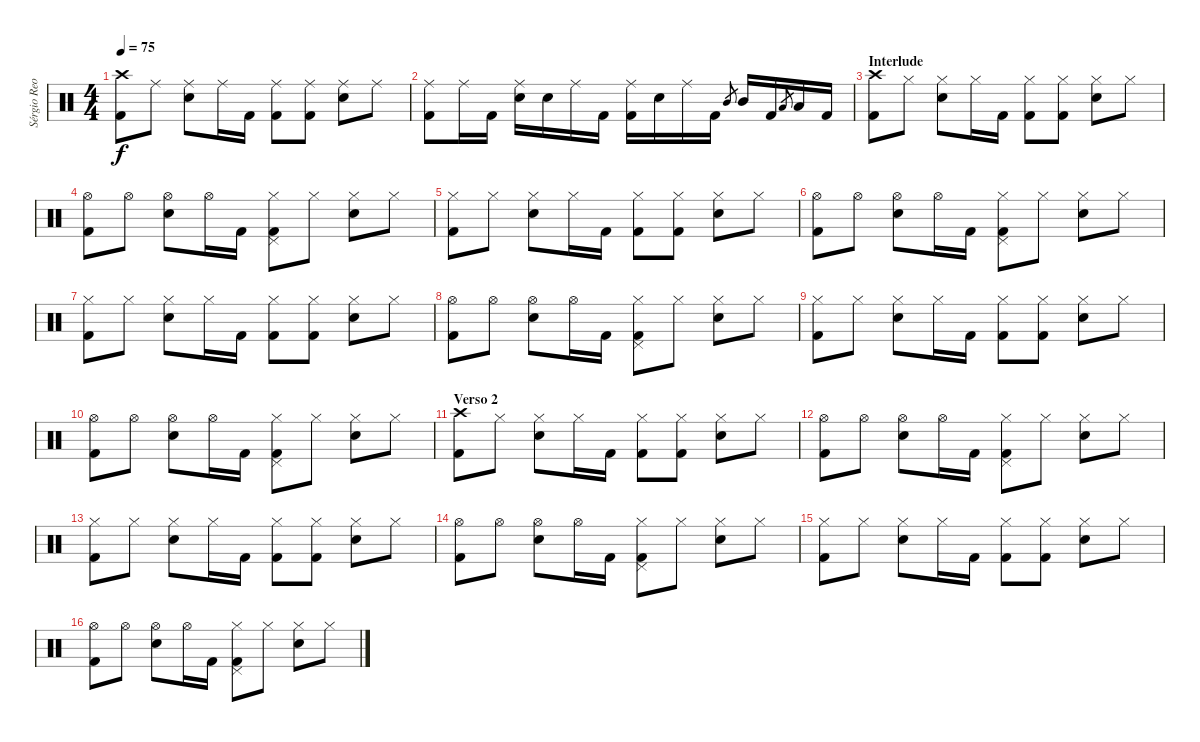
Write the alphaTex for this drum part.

\track ("Sérgio Reoli" "Sérgio Reo") {instrument percussion}
\staff {score}
\articulation defaults
\ts (4 4)
\tempo 75
\clef neutral
\ks c
("Crash high (hit)" "Kick (hit) 2").8{dy f} "Ride (middle)".8 ("Ride (middle)" "Electric Snare (hit)").8 "Ride (middle)".16 "Kick (hit) 2".16 ("Ride (middle)" "Kick (hit) 2").8 ("Ride (middle)" "Kick (hit) 2").8 ("Ride (middle)" "Electric Snare (hit)").8 "Ride (middle)".8 |
("Ride (middle)" "Kick (hit) 2").8 "Ride (middle)".16 "Kick (hit) 2".16 ("Ride (middle)" "Electric Snare (hit)").16 "Electric Snare (hit)".16 "Ride (middle)".16 "Kick (hit) 2".16 ("Ride (middle)" "Kick (hit) 2").16 "Electric Snare (hit)".16 "Ride (middle)".16 "Kick (hit) 2".16 "Mid Tom (hit)".8{gr} "Mid Tom (hit)".16 "Kick (hit) 2".16 "Low Tom (hit)".8{gr} "Low Tom (hit)".16 "Kick (hit) 2".16 |
\section ("" "Interlude")
("Crash high (hit)" "Kick (hit) 2").8 "Hi-Hat (closed)".8 ("Hi-Hat (closed)" "Electric Snare (hit)").8 "Hi-Hat (closed)".16 "Kick (hit) 2".16 ("Hi-Hat (closed)" "Kick (hit) 2").8 ("Hi-Hat (closed)" "Kick (hit) 2").8 ("Hi-Hat (closed)" "Electric Snare (hit)").8 "Hi-Hat (closed)".8 |
("Hi-Hat (open)" "Kick (hit) 2").8 "Hi-Hat (open)".8 ("Hi-Hat (open)" "Electric Snare (hit)").8 "Hi-Hat (open)".16 "Kick (hit) 2".16 ("Hi-Hat (closed)" "Pedal Hi-Hat (hit)" "Kick (hit) 2").8 "Hi-Hat (closed)".8 ("Hi-Hat (closed)" "Electric Snare (hit)").8 "Hi-Hat (closed)".8 |
("Hi-Hat (closed)" "Kick (hit) 2").8 "Hi-Hat (closed)".8 ("Hi-Hat (closed)" "Electric Snare (hit)").8 "Hi-Hat (closed)".16 "Kick (hit) 2".16 ("Hi-Hat (closed)" "Kick (hit) 2").8 ("Hi-Hat (closed)" "Kick (hit) 2").8 ("Hi-Hat (closed)" "Electric Snare (hit)").8 "Hi-Hat (closed)".8 |
("Hi-Hat (open)" "Kick (hit) 2").8 "Hi-Hat (open)".8 ("Hi-Hat (open)" "Electric Snare (hit)").8 "Hi-Hat (open)".16 "Kick (hit) 2".16 ("Hi-Hat (closed)" "Pedal Hi-Hat (hit)" "Kick (hit) 2").8 "Hi-Hat (closed)".8 ("Hi-Hat (closed)" "Electric Snare (hit)").8 "Hi-Hat (closed)".8 |
("Hi-Hat (closed)" "Kick (hit) 2").8 "Hi-Hat (closed)".8 ("Hi-Hat (closed)" "Electric Snare (hit)").8 "Hi-Hat (closed)".16 "Kick (hit) 2".16 ("Hi-Hat (closed)" "Kick (hit) 2").8 ("Hi-Hat (closed)" "Kick (hit) 2").8 ("Hi-Hat (closed)" "Electric Snare (hit)").8 "Hi-Hat (closed)".8 |
("Hi-Hat (open)" "Kick (hit) 2").8 "Hi-Hat (open)".8 ("Hi-Hat (open)" "Electric Snare (hit)").8 "Hi-Hat (open)".16 "Kick (hit) 2".16 ("Hi-Hat (closed)" "Pedal Hi-Hat (hit)" "Kick (hit) 2").8 "Hi-Hat (closed)".8 ("Hi-Hat (closed)" "Electric Snare (hit)").8 "Hi-Hat (closed)".8 |
("Hi-Hat (closed)" "Kick (hit) 2").8 "Hi-Hat (closed)".8 ("Hi-Hat (closed)" "Electric Snare (hit)").8 "Hi-Hat (closed)".16 "Kick (hit) 2".16 ("Hi-Hat (closed)" "Kick (hit) 2").8 ("Hi-Hat (closed)" "Kick (hit) 2").8 ("Hi-Hat (closed)" "Electric Snare (hit)").8 "Hi-Hat (closed)".8 |
("Hi-Hat (open)" "Kick (hit) 2").8 "Hi-Hat (open)".8 ("Hi-Hat (open)" "Electric Snare (hit)").8 "Hi-Hat (open)".16 "Kick (hit) 2".16 ("Hi-Hat (closed)" "Pedal Hi-Hat (hit)" "Kick (hit) 2").8 "Hi-Hat (closed)".8 ("Hi-Hat (closed)" "Electric Snare (hit)").8 "Hi-Hat (closed)".8 |
\section ("" "Verso 2")
("Crash high (hit)" "Kick (hit) 2").8 "Hi-Hat (closed)".8 ("Hi-Hat (closed)" "Electric Snare (hit)").8 "Hi-Hat (closed)".16 "Kick (hit) 2".16 ("Hi-Hat (closed)" "Kick (hit) 2").8 ("Hi-Hat (closed)" "Kick (hit) 2").8 ("Hi-Hat (closed)" "Electric Snare (hit)").8 "Hi-Hat (closed)".8 |
("Hi-Hat (open)" "Kick (hit) 2").8 "Hi-Hat (open)".8 ("Hi-Hat (open)" "Electric Snare (hit)").8 "Hi-Hat (open)".16 "Kick (hit) 2".16 ("Hi-Hat (closed)" "Pedal Hi-Hat (hit)" "Kick (hit) 2").8 "Hi-Hat (closed)".8 ("Hi-Hat (closed)" "Electric Snare (hit)").8 "Hi-Hat (closed)".8 |
("Hi-Hat (closed)" "Kick (hit) 2").8 "Hi-Hat (closed)".8 ("Hi-Hat (closed)" "Electric Snare (hit)").8 "Hi-Hat (closed)".16 "Kick (hit) 2".16 ("Hi-Hat (closed)" "Kick (hit) 2").8 ("Hi-Hat (closed)" "Kick (hit) 2").8 ("Hi-Hat (closed)" "Electric Snare (hit)").8 "Hi-Hat (closed)".8 |
("Hi-Hat (open)" "Kick (hit) 2").8 "Hi-Hat (open)".8 ("Hi-Hat (open)" "Electric Snare (hit)").8 "Hi-Hat (open)".16 "Kick (hit) 2".16 ("Hi-Hat (closed)" "Pedal Hi-Hat (hit)" "Kick (hit) 2").8 "Hi-Hat (closed)".8 ("Hi-Hat (closed)" "Electric Snare (hit)").8 "Hi-Hat (closed)".8 |
("Hi-Hat (closed)" "Kick (hit) 2").8 "Hi-Hat (closed)".8 ("Hi-Hat (closed)" "Electric Snare (hit)").8 "Hi-Hat (closed)".16 "Kick (hit) 2".16 ("Hi-Hat (closed)" "Kick (hit) 2").8 ("Hi-Hat (closed)" "Kick (hit) 2").8 ("Hi-Hat (closed)" "Electric Snare (hit)").8 "Hi-Hat (closed)".8 |
("Hi-Hat (open)" "Kick (hit) 2").8 "Hi-Hat (open)".8 ("Hi-Hat (open)" "Electric Snare (hit)").8 "Hi-Hat (open)".16 "Kick (hit) 2".16 ("Hi-Hat (closed)" "Pedal Hi-Hat (hit)" "Kick (hit) 2").8 "Hi-Hat (closed)".8 ("Hi-Hat (closed)" "Electric Snare (hit)").8 "Hi-Hat (closed)".8
